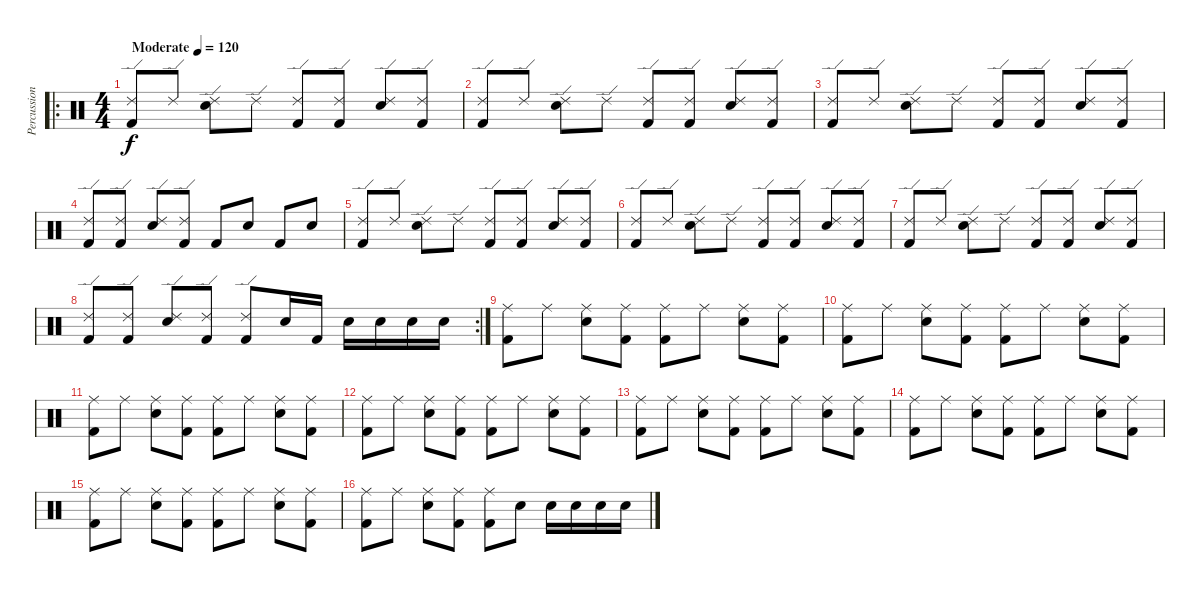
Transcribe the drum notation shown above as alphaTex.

\track ("Percussion" "Percussion") {instrument percussion}
\staff {score}
\articulation defaults
\ro
\ts (4 4)
\tempo (120 "Moderate")
\clef neutral
\ks c
("Kick (hit) 2" "Ride (edge) 2").8{dy f} "Ride (edge) 2".8 ("Snare (hit) 2" "Ride (edge) 2").8 "Ride (edge) 2".8 ("Kick (hit) 2" "Ride (edge) 2").8 ("Kick (hit) 2" "Ride (edge) 2").8 ("Snare (hit) 2" "Ride (edge) 2").8 ("Kick (hit) 2" "Ride (edge) 2").8 |
("Kick (hit) 2" "Ride (edge) 2").8 "Ride (edge) 2".8 ("Snare (hit) 2" "Ride (edge) 2").8 "Ride (edge) 2".8 ("Kick (hit) 2" "Ride (edge) 2").8 ("Kick (hit) 2" "Ride (edge) 2").8 ("Snare (hit) 2" "Ride (edge) 2").8 ("Kick (hit) 2" "Ride (edge) 2").8 |
("Kick (hit) 2" "Ride (edge) 2").8 "Ride (edge) 2".8 ("Snare (hit) 2" "Ride (edge) 2").8 "Ride (edge) 2".8 ("Kick (hit) 2" "Ride (edge) 2").8 ("Kick (hit) 2" "Ride (edge) 2").8 ("Snare (hit) 2" "Ride (edge) 2").8 ("Kick (hit) 2" "Ride (edge) 2").8 |
("Kick (hit) 2" "Ride (edge) 2").8 ("Kick (hit) 2" "Ride (edge) 2").8 ("Snare (hit) 2" "Ride (edge) 2").8 ("Kick (hit) 2" "Ride (edge) 2").8 "Kick (hit) 2".8 "Snare (hit) 2".8 "Kick (hit) 2".8 "Snare (hit) 2".8 |
("Kick (hit) 2" "Ride (edge) 2").8 "Ride (edge) 2".8 ("Snare (hit) 2" "Ride (edge) 2").8 "Ride (edge) 2".8 ("Kick (hit) 2" "Ride (edge) 2").8 ("Kick (hit) 2" "Ride (edge) 2").8 ("Snare (hit) 2" "Ride (edge) 2").8 ("Kick (hit) 2" "Ride (edge) 2").8 |
("Kick (hit) 2" "Ride (edge) 2").8 "Ride (edge) 2".8 ("Snare (hit) 2" "Ride (edge) 2").8 "Ride (edge) 2".8 ("Kick (hit) 2" "Ride (edge) 2").8 ("Kick (hit) 2" "Ride (edge) 2").8 ("Snare (hit) 2" "Ride (edge) 2").8 ("Kick (hit) 2" "Ride (edge) 2").8 |
("Kick (hit) 2" "Ride (edge) 2").8 "Ride (edge) 2".8 ("Snare (hit) 2" "Ride (edge) 2").8 "Ride (edge) 2".8 ("Kick (hit) 2" "Ride (edge) 2").8 ("Kick (hit) 2" "Ride (edge) 2").8 ("Snare (hit) 2" "Ride (edge) 2").8 ("Kick (hit) 2" "Ride (edge) 2").8 |
\rc 2
("Kick (hit) 2" "Ride (edge) 2").8 ("Kick (hit) 2" "Ride (edge) 2").8 ("Snare (hit) 2" "Ride (edge) 2").8 ("Kick (hit) 2" "Ride (edge) 2").8 ("Kick (hit) 2" "Ride (edge) 2").8 "Snare (hit) 2".16 "Kick (hit) 2".16 "Snare (hit) 2".16 "Snare (hit) 2".16 "Snare (hit) 2".16 "Snare (hit) 2".16 |
("Kick (hit) 2" "Ride (middle)").8 "Ride (middle)".8 ("Electric Snare (hit)" "Ride (middle)").8 ("Kick (hit) 2" "Ride (middle)").8 ("Kick (hit) 2" "Ride (middle)").8 "Ride (middle)".8 ("Electric Snare (hit)" "Ride (middle)").8 ("Kick (hit) 2" "Ride (middle)").8 |
("Kick (hit) 2" "Ride (middle)").8 "Ride (middle)".8 ("Electric Snare (hit)" "Ride (middle)").8 ("Kick (hit) 2" "Ride (middle)").8 ("Kick (hit) 2" "Ride (middle)").8 "Ride (middle)".8 ("Electric Snare (hit)" "Ride (middle)").8 ("Kick (hit) 2" "Ride (middle)").8 |
("Kick (hit) 2" "Ride (middle)").8 "Ride (middle)".8 ("Electric Snare (hit)" "Ride (middle)").8 ("Kick (hit) 2" "Ride (middle)").8 ("Kick (hit) 2" "Ride (middle)").8 "Ride (middle)".8 ("Electric Snare (hit)" "Ride (middle)").8 ("Kick (hit) 2" "Ride (middle)").8 |
("Kick (hit) 2" "Ride (middle)").8 "Ride (middle)".8 ("Electric Snare (hit)" "Ride (middle)").8 ("Kick (hit) 2" "Ride (middle)").8 ("Kick (hit) 2" "Ride (middle)").8 "Ride (middle)".8 ("Electric Snare (hit)" "Ride (middle)").8 ("Kick (hit) 2" "Ride (middle)").8 |
("Kick (hit) 2" "Ride (middle)").8 "Ride (middle)".8 ("Electric Snare (hit)" "Ride (middle)").8 ("Kick (hit) 2" "Ride (middle)").8 ("Kick (hit) 2" "Ride (middle)").8 "Ride (middle)".8 ("Electric Snare (hit)" "Ride (middle)").8 ("Kick (hit) 2" "Ride (middle)").8 |
("Kick (hit) 2" "Ride (middle)").8 "Ride (middle)".8 ("Electric Snare (hit)" "Ride (middle)").8 ("Kick (hit) 2" "Ride (middle)").8 ("Kick (hit) 2" "Ride (middle)").8 "Ride (middle)".8 ("Electric Snare (hit)" "Ride (middle)").8 ("Kick (hit) 2" "Ride (middle)").8 |
("Kick (hit) 2" "Ride (middle)").8 "Ride (middle)".8 ("Electric Snare (hit)" "Ride (middle)").8 ("Kick (hit) 2" "Ride (middle)").8 ("Kick (hit) 2" "Ride (middle)").8 "Ride (middle)".8 ("Electric Snare (hit)" "Ride (middle)").8 ("Kick (hit) 2" "Ride (middle)").8 |
("Kick (hit) 2" "Ride (middle)").8 "Ride (middle)".8 ("Electric Snare (hit)" "Ride (middle)").8 ("Kick (hit) 2" "Ride (middle)").8 ("Kick (hit) 2" "Ride (middle)").8 "Electric Snare (hit)".8 "Electric Snare (hit)".16 "Electric Snare (hit)".16 "Electric Snare (hit)".16 "Electric Snare (hit)".16
